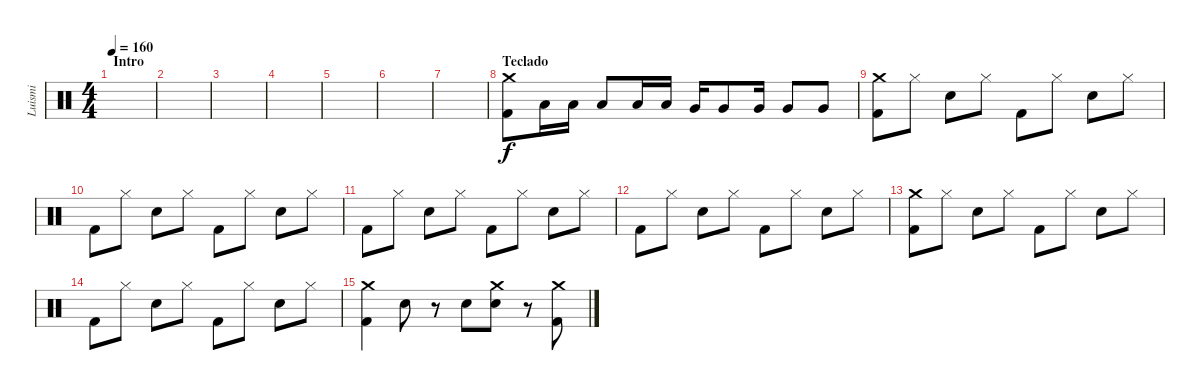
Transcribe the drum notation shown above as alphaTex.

\track ("Luismi" "Luismi") {instrument percussion}
\staff {score}
\articulation defaults
\ts (4 4)
\section ("" "Intro")
\tempo 160
\clef neutral
\ks c
|
|
|
|
|
|
|
\section ("" "Teclado")
("Crash medium (hit)" "Kick (hit) 2").8 "Low Tom (hit)".16 "Low Tom (hit)".16 "Low Tom (hit)".8 "Low Tom (hit)".16 "Low Tom (hit)".16 "Very Low Tom (hit)".16 "Very Low Tom (hit)".8 "Very Low Tom (hit)".16 "Very Low Tom (hit)".8 "Very Low Tom (hit)".8 |
("Crash medium (hit)" "Kick (hit) 2").8 "Hi-Hat (closed)".8 "Snare (hit) 2".8 "Hi-Hat (closed)".8 "Kick (hit) 2".8 "Hi-Hat (closed)".8 "Snare (hit) 2".8 "Hi-Hat (closed)".8 |
"Kick (hit) 2".8 "Hi-Hat (closed)".8 "Snare (hit) 2".8 "Hi-Hat (closed)".8 "Kick (hit) 2".8 "Hi-Hat (closed)".8 "Snare (hit) 2".8 "Hi-Hat (closed)".8 |
"Kick (hit) 2".8 "Hi-Hat (closed)".8 "Snare (hit) 2".8 "Hi-Hat (closed)".8 "Kick (hit) 2".8 "Hi-Hat (closed)".8 "Snare (hit) 2".8 "Hi-Hat (closed)".8 |
"Kick (hit) 2".8 "Hi-Hat (closed)".8 "Snare (hit) 2".8 "Hi-Hat (closed)".8 "Kick (hit) 2".8 "Hi-Hat (closed)".8 "Snare (hit) 2".8 "Hi-Hat (closed)".8 |
("Crash medium (hit)" "Kick (hit) 2").8 "Hi-Hat (closed)".8 "Snare (hit) 2".8 "Hi-Hat (closed)".8 "Kick (hit) 2".8 "Hi-Hat (closed)".8 "Snare (hit) 2".8 "Hi-Hat (closed)".8 |
"Kick (hit) 2".8 "Hi-Hat (closed)".8 "Snare (hit) 2".8 "Hi-Hat (closed)".8 "Kick (hit) 2".8 "Hi-Hat (closed)".8 "Snare (hit) 2".8 "Hi-Hat (closed)".8 |
("Crash medium (hit)" "Kick (hit) 2").4 "Snare (hit) 2".8 r.8 "Snare (hit) 2".8 ("Crash medium (hit)" "Snare (hit) 2").8 r.8 ("Crash medium (hit)" "Kick (hit) 2").8
